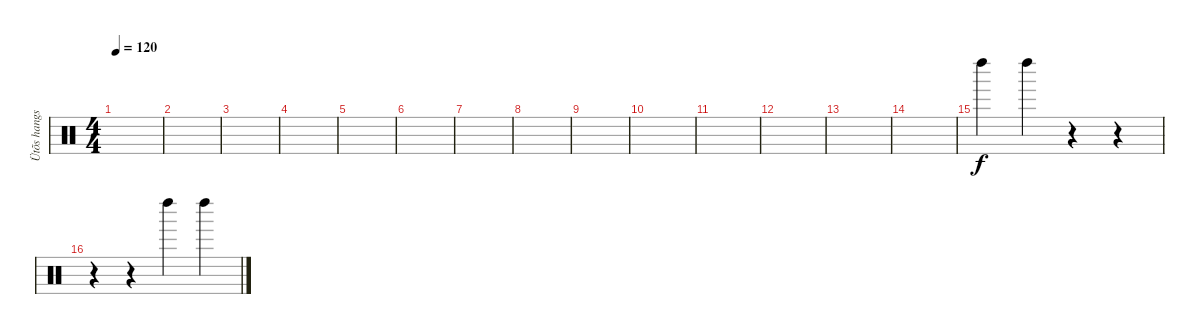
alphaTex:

\track ("Ütõs hangszer" "Ütõs hangs") {instrument percussion}
\staff {score}
\articulation defaults
\ts (4 4)
\tempo 120
\clef neutral
\ks c
|
|
|
|
|
|
|
|
|
|
|
|
|
|
"Left Maraca (hit)".4 "Left Maraca (hit)".4 r.4 r.4 |
r.4 r.4 "Left Maraca (hit)".4 "Left Maraca (hit)".4
